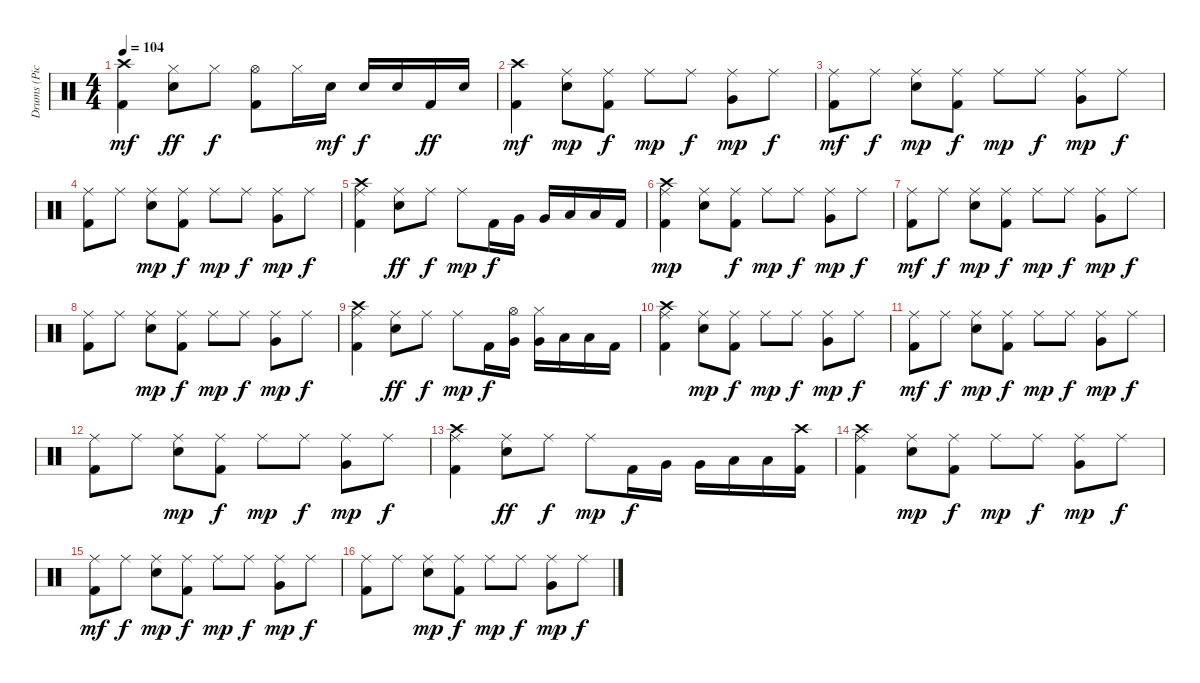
\track ("Drums (Pick Whiters)" "Drums (Pic") {instrument percussion}
\staff {score}
\articulation defaults
\ts (4 4)
\tempo 104
\clef neutral
\ks c
("Crash high (hit)" "Kick (hit) 2").4{dy mf} ("Snare (hit) 2" "Hi-Hat (closed)").8{dy ff} "Hi-Hat (closed)".8{dy f} ("Kick (hit) 2" "Hi-Hat (open)").8 "Hi-Hat (closed)".16 "Snare (hit) 2".16{dy mf} "Snare (hit) 2".16{dy f} "Snare (hit) 2".16 "Kick (hit) 2".16{dy ff} "Snare (hit) 2".16 |
("Crash high (hit)" "Kick (hit) 2").4{dy mf} ("Snare (hit) 2" "Ride (middle)").8{dy mp} ("Kick (hit) 2" "Ride (middle)").8{dy f} "Ride (middle)".8{dy mp} "Ride (middle)".8{dy f} ("Very Low Tom (hit)" "Ride (middle)").8{dy mp} "Ride (middle)".8{dy f} |
("Ride (middle)" "Kick (hit) 2").8{dy mf} "Ride (middle)".8{dy f} ("Snare (hit) 2" "Ride (middle)").8{dy mp} ("Kick (hit) 2" "Ride (middle)").8{dy f} "Ride (middle)".8{dy mp} "Ride (middle)".8{dy f} ("Very Low Tom (hit)" "Ride (middle)").8{dy mp} "Ride (middle)".8{dy f} |
("Ride (middle)" "Kick (hit) 2").8 "Ride (middle)".8 ("Snare (hit) 2" "Ride (middle)").8{dy mp} ("Kick (hit) 2" "Ride (middle)").8{dy f} "Ride (middle)".8{dy mp} "Ride (middle)".8{dy f} ("Very Low Tom (hit)" "Ride (middle)").8{dy mp} "Ride (middle)".8{dy f} |
("Ride (middle)" "Crash high (hit)" "Kick (hit) 2").4 ("Ride (middle)" "Snare (hit) 2").8{dy ff} "Ride (middle)".8{dy f} "Ride (middle)".8{dy mp} "Kick (hit) 2".16{dy f} "Very Low Tom (hit)".16 "Very Low Tom (hit)".16 "Low Floor Tom (hit)".16 "Low Floor Tom (hit)".16 "Kick (hit) 2".16 |
("Crash high (hit)" "Ride (middle)" "Kick (hit) 2").4{dy mp} ("Snare (hit) 2" "Ride (middle)").8 ("Kick (hit) 2" "Ride (middle)").8{dy f} "Ride (middle)".8{dy mp} "Ride (middle)".8{dy f} ("Very Low Tom (hit)" "Ride (middle)").8{dy mp} "Ride (middle)".8{dy f} |
("Ride (middle)" "Kick (hit) 2").8{dy mf} "Ride (middle)".8{dy f} ("Snare (hit) 2" "Ride (middle)").8{dy mp} ("Kick (hit) 2" "Ride (middle)").8{dy f} "Ride (middle)".8{dy mp} "Ride (middle)".8{dy f} ("Very Low Tom (hit)" "Ride (middle)").8{dy mp} "Ride (middle)".8{dy f} |
("Ride (middle)" "Kick (hit) 2").8 "Ride (middle)".8 ("Snare (hit) 2" "Ride (middle)").8{dy mp} ("Kick (hit) 2" "Ride (middle)").8{dy f} "Ride (middle)".8{dy mp} "Ride (middle)".8{dy f} ("Very Low Tom (hit)" "Ride (middle)").8{dy mp} "Ride (middle)".8{dy f} |
("Ride (middle)" "Crash high (hit)" "Kick (hit) 2").4 ("Ride (middle)" "Snare (hit) 2").8{dy ff} "Ride (middle)".8{dy f} "Ride (middle)".8{dy mp} "Kick (hit) 2".16{dy f} ("Very Low Tom (hit)" "Hi-Hat (open)").16 ("Very Low Tom (hit)" "Hi-Hat (closed)").16 "Low Floor Tom (hit)".16 "Low Floor Tom (hit)".16 "Kick (hit) 2".16 |
("Ride (middle)" "Crash high (hit)" "Kick (hit) 2").4 ("Snare (hit) 2" "Ride (middle)").8{dy mp} ("Kick (hit) 2" "Ride (middle)").8{dy f} "Ride (middle)".8{dy mp} "Ride (middle)".8{dy f} ("Very Low Tom (hit)" "Ride (middle)").8{dy mp} "Ride (middle)".8{dy f} |
("Ride (middle)" "Kick (hit) 2").8{dy mf} "Ride (middle)".8{dy f} ("Snare (hit) 2" "Ride (middle)").8{dy mp} ("Kick (hit) 2" "Ride (middle)").8{dy f} "Ride (middle)".8{dy mp} "Ride (middle)".8{dy f} ("Very Low Tom (hit)" "Ride (middle)").8{dy mp} "Ride (middle)".8{dy f} |
("Ride (middle)" "Kick (hit) 2").8 "Ride (middle)".8 ("Snare (hit) 2" "Ride (middle)").8{dy mp} ("Kick (hit) 2" "Ride (middle)").8{dy f} "Ride (middle)".8{dy mp} "Ride (middle)".8{dy f} ("Very Low Tom (hit)" "Ride (middle)").8{dy mp} "Ride (middle)".8{dy f} |
("Ride (middle)" "Crash high (hit)" "Kick (hit) 2").4 ("Ride (middle)" "Snare (hit) 2").8{dy ff} "Ride (middle)".8{dy f} "Ride (middle)".8{dy mp} "Kick (hit) 2".16{dy f} "Very Low Tom (hit)".16 "Very Low Tom (hit)".16 "Low Floor Tom (hit)".16 "Low Floor Tom (hit)".16 ("Kick (hit) 2" "Crash high (hit)").16 |
("Ride (middle)" "Crash high (hit)" "Kick (hit) 2").4 ("Snare (hit) 2" "Ride (middle)").8{dy mp} ("Kick (hit) 2" "Ride (middle)").8{dy f} "Ride (middle)".8{dy mp} "Ride (middle)".8{dy f} ("Very Low Tom (hit)" "Ride (middle)").8{dy mp} "Ride (middle)".8{dy f} |
("Ride (middle)" "Kick (hit) 2").8{dy mf} "Ride (middle)".8{dy f} ("Snare (hit) 2" "Ride (middle)").8{dy mp} ("Kick (hit) 2" "Ride (middle)").8{dy f} "Ride (middle)".8{dy mp} "Ride (middle)".8{dy f} ("Very Low Tom (hit)" "Ride (middle)").8{dy mp} "Ride (middle)".8{dy f} |
("Ride (middle)" "Kick (hit) 2").8 "Ride (middle)".8 ("Snare (hit) 2" "Ride (middle)").8{dy mp} ("Kick (hit) 2" "Ride (middle)").8{dy f} "Ride (middle)".8{dy mp} "Ride (middle)".8{dy f} ("Very Low Tom (hit)" "Ride (middle)").8{dy mp} "Ride (middle)".8{dy f}
